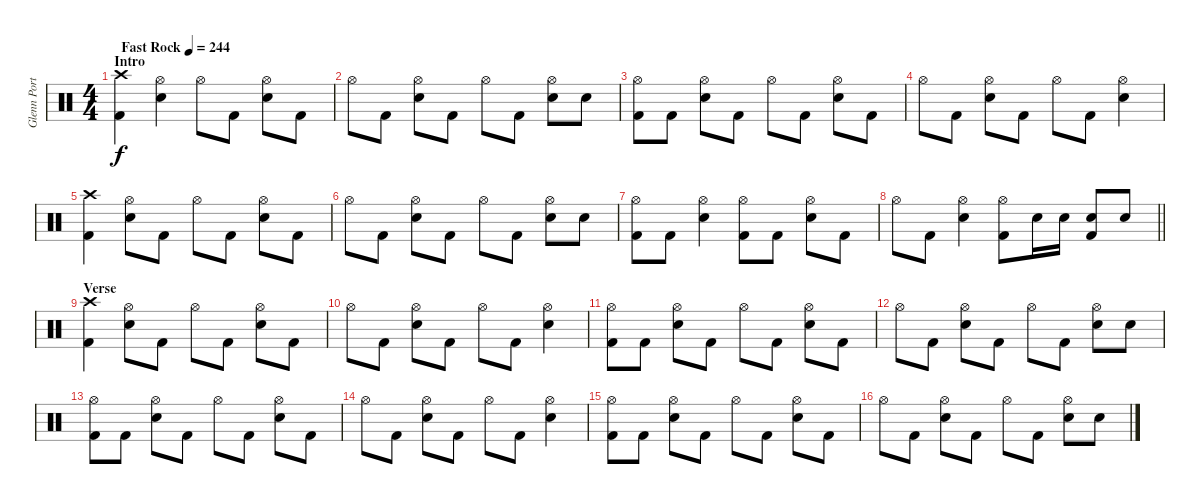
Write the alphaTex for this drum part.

\track ("Glenn Porter - Drums" "Glenn Port") {instrument percussion}
\staff {score}
\articulation defaults
\ts (4 4)
\section ("" "Intro")
\tempo (244 "Fast Rock")
\clef neutral
\ks c
("Kick (hit) 2" "Crash high (hit)").4{dy f} ("Snare (hit) 2" "Hi-Hat (open)").4 "Hi-Hat (open)".8 "Kick (hit) 2".8 ("Snare (hit) 2" "Hi-Hat (open)").8 "Kick (hit) 2".8 |
"Hi-Hat (open)".8 "Kick (hit) 2".8 ("Snare (hit) 2" "Hi-Hat (open)").8 "Kick (hit) 2".8 "Hi-Hat (open)".8 "Kick (hit) 2".8 ("Snare (hit) 2" "Hi-Hat (open)").8 "Snare (hit) 2".8 |
("Kick (hit) 2" "Hi-Hat (open)").8 "Kick (hit) 2".8 ("Snare (hit) 2" "Hi-Hat (open)").8 "Kick (hit) 2".8 "Hi-Hat (open)".8 "Kick (hit) 2".8 ("Snare (hit) 2" "Hi-Hat (open)").8 "Kick (hit) 2".8 |
"Hi-Hat (open)".8 "Kick (hit) 2".8 ("Snare (hit) 2" "Hi-Hat (open)").8 "Kick (hit) 2".8 "Hi-Hat (open)".8 "Kick (hit) 2".8 ("Snare (hit) 2" "Hi-Hat (open)").4 |
("Kick (hit) 2" "Crash high (hit)").4 ("Snare (hit) 2" "Hi-Hat (open)").8 "Kick (hit) 2".8 "Hi-Hat (open)".8 "Kick (hit) 2".8 ("Snare (hit) 2" "Hi-Hat (open)").8 "Kick (hit) 2".8 |
"Hi-Hat (open)".8 "Kick (hit) 2".8 ("Snare (hit) 2" "Hi-Hat (open)").8 "Kick (hit) 2".8 "Hi-Hat (open)".8 "Kick (hit) 2".8 ("Snare (hit) 2" "Hi-Hat (open)").8 "Snare (hit) 2".8 |
("Kick (hit) 2" "Hi-Hat (open)").8 "Kick (hit) 2".8 ("Snare (hit) 2" "Hi-Hat (open)").4 ("Kick (hit) 2" "Hi-Hat (open)").8 "Kick (hit) 2".8 ("Snare (hit) 2" "Hi-Hat (open)").8 "Kick (hit) 2".8 |
\barLineRight lightlight "Hi-Hat (open)".8 "Kick (hit) 2".8
("Snare (hit) 2" "Hi-Hat (open)").4 ("Kick (hit) 2" "Hi-Hat (open)").8 "Snare (hit) 2".16 "Snare (hit) 2".16 ("Snare (hit) 2" "Kick (hit) 2").8 "Snare (hit) 2".8 |
\section ("" "Verse")
("Kick (hit) 2" "Crash high (hit)").4 ("Snare (hit) 2" "Hi-Hat (open)").8 "Kick (hit) 2".8 "Hi-Hat (open)".8 "Kick (hit) 2".8 ("Snare (hit) 2" "Hi-Hat (open)").8 "Kick (hit) 2".8 |
"Hi-Hat (open)".8 "Kick (hit) 2".8 ("Snare (hit) 2" "Hi-Hat (open)").8 "Kick (hit) 2".8 "Hi-Hat (open)".8 "Kick (hit) 2".8 ("Snare (hit) 2" "Hi-Hat (open)").4 |
("Kick (hit) 2" "Hi-Hat (open)").8 "Kick (hit) 2".8 ("Snare (hit) 2" "Hi-Hat (open)").8 "Kick (hit) 2".8 "Hi-Hat (open)".8 "Kick (hit) 2".8 ("Snare (hit) 2" "Hi-Hat (open)").8 "Kick (hit) 2".8 |
"Hi-Hat (open)".8 "Kick (hit) 2".8 ("Snare (hit) 2" "Hi-Hat (open)").8 "Kick (hit) 2".8 "Hi-Hat (open)".8 "Kick (hit) 2".8 ("Snare (hit) 2" "Hi-Hat (open)").8 "Snare (hit) 2".8 |
("Kick (hit) 2" "Hi-Hat (open)").8 "Kick (hit) 2".8 ("Snare (hit) 2" "Hi-Hat (open)").8 "Kick (hit) 2".8 "Hi-Hat (open)".8 "Kick (hit) 2".8 ("Snare (hit) 2" "Hi-Hat (open)").8 "Kick (hit) 2".8 |
"Hi-Hat (open)".8 "Kick (hit) 2".8 ("Snare (hit) 2" "Hi-Hat (open)").8 "Kick (hit) 2".8 "Hi-Hat (open)".8 "Kick (hit) 2".8 ("Snare (hit) 2" "Hi-Hat (open)").4 |
("Kick (hit) 2" "Hi-Hat (open)").8 "Kick (hit) 2".8 ("Snare (hit) 2" "Hi-Hat (open)").8 "Kick (hit) 2".8 "Hi-Hat (open)".8 "Kick (hit) 2".8 ("Snare (hit) 2" "Hi-Hat (open)").8 "Kick (hit) 2".8 |
"Hi-Hat (open)".8 "Kick (hit) 2".8 ("Snare (hit) 2" "Hi-Hat (open)").8 "Kick (hit) 2".8 "Hi-Hat (open)".8 "Kick (hit) 2".8 ("Snare (hit) 2" "Hi-Hat (open)").8 "Snare (hit) 2".8
